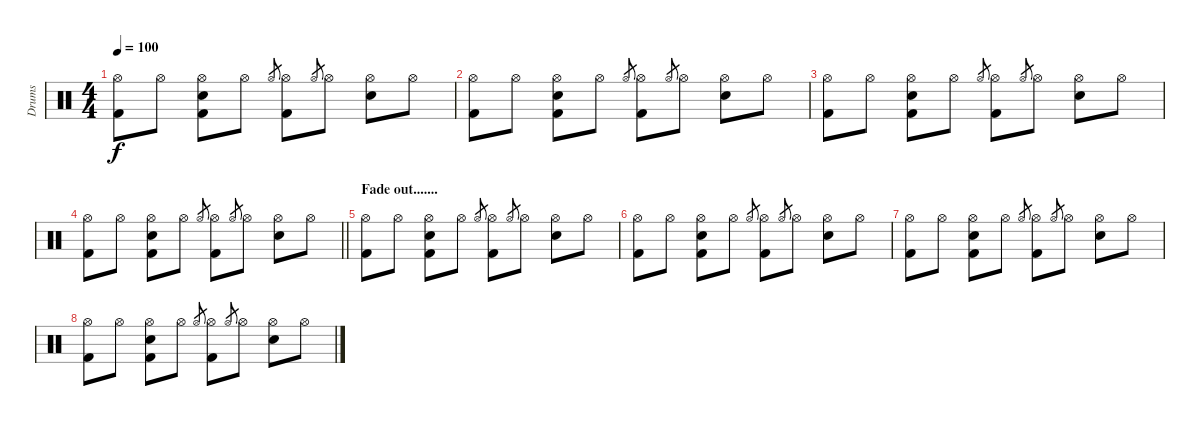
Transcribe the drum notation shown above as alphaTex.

\track ("Drums" "Drums") {instrument percussion}
\staff {score}
\articulation defaults
\ts (4 4)
\tempo 100
\clef neutral
\ks c
("Hi-Hat (open)" "Kick (hit) 2").8{dy f} "Hi-Hat (open)".8 ("Electric Snare (hit)" "Hi-Hat (open)" "Kick (hit) 2").8 "Hi-Hat (open)".8 "Hi-Hat (open)".8{gr} ("Hi-Hat (open)" "Kick (hit) 2").8 "Hi-Hat (open)".8{gr} "Hi-Hat (open)".8 ("Electric Snare (hit)" "Hi-Hat (open)").8 "Hi-Hat (open)".8 |
("Hi-Hat (open)" "Kick (hit) 2").8 "Hi-Hat (open)".8 ("Electric Snare (hit)" "Hi-Hat (open)" "Kick (hit) 2").8 "Hi-Hat (open)".8 "Hi-Hat (open)".8{gr} ("Hi-Hat (open)" "Kick (hit) 2").8 "Hi-Hat (open)".8{gr} "Hi-Hat (open)".8 ("Electric Snare (hit)" "Hi-Hat (open)").8 "Hi-Hat (open)".8 |
("Hi-Hat (open)" "Kick (hit) 2").8 "Hi-Hat (open)".8 ("Electric Snare (hit)" "Hi-Hat (open)" "Kick (hit) 2").8 "Hi-Hat (open)".8 "Hi-Hat (open)".8{gr} ("Hi-Hat (open)" "Kick (hit) 2").8 "Hi-Hat (open)".8{gr} "Hi-Hat (open)".8 ("Electric Snare (hit)" "Hi-Hat (open)").8 "Hi-Hat (open)".8 |
\barLineRight lightlight
("Hi-Hat (open)" "Kick (hit) 2").8 "Hi-Hat (open)".8 ("Electric Snare (hit)" "Hi-Hat (open)" "Kick (hit) 2").8 "Hi-Hat (open)".8 "Hi-Hat (open)".8{gr} ("Hi-Hat (open)" "Kick (hit) 2").8 "Hi-Hat (open)".8{gr} "Hi-Hat (open)".8 ("Electric Snare (hit)" "Hi-Hat (open)").8 "Hi-Hat (open)".8 |
\section ("" "Fade out.......")
("Hi-Hat (open)" "Kick (hit) 2").8{volume 0} "Hi-Hat (open)".8 ("Electric Snare (hit)" "Hi-Hat (open)" "Kick (hit) 2").8 "Hi-Hat (open)".8 "Hi-Hat (open)".8{gr} ("Hi-Hat (open)" "Kick (hit) 2").8 "Hi-Hat (open)".8{gr} "Hi-Hat (open)".8 ("Electric Snare (hit)" "Hi-Hat (open)").8 "Hi-Hat (open)".8 |
("Hi-Hat (open)" "Kick (hit) 2").8 "Hi-Hat (open)".8 ("Electric Snare (hit)" "Hi-Hat (open)" "Kick (hit) 2").8 "Hi-Hat (open)".8 "Hi-Hat (open)".8{gr} ("Hi-Hat (open)" "Kick (hit) 2").8 "Hi-Hat (open)".8{gr} "Hi-Hat (open)".8 ("Electric Snare (hit)" "Hi-Hat (open)").8 "Hi-Hat (open)".8 |
("Hi-Hat (open)" "Kick (hit) 2").8 "Hi-Hat (open)".8 ("Electric Snare (hit)" "Hi-Hat (open)" "Kick (hit) 2").8 "Hi-Hat (open)".8 "Hi-Hat (open)".8{gr} ("Hi-Hat (open)" "Kick (hit) 2").8 "Hi-Hat (open)".8{gr} "Hi-Hat (open)".8 ("Electric Snare (hit)" "Hi-Hat (open)").8 "Hi-Hat (open)".8 |
("Hi-Hat (open)" "Kick (hit) 2").8 "Hi-Hat (open)".8 ("Electric Snare (hit)" "Hi-Hat (open)" "Kick (hit) 2").8 "Hi-Hat (open)".8 "Hi-Hat (open)".8{gr} ("Hi-Hat (open)" "Kick (hit) 2").8 "Hi-Hat (open)".8{gr} "Hi-Hat (open)".8 ("Electric Snare (hit)" "Hi-Hat (open)").8 "Hi-Hat (open)".8
